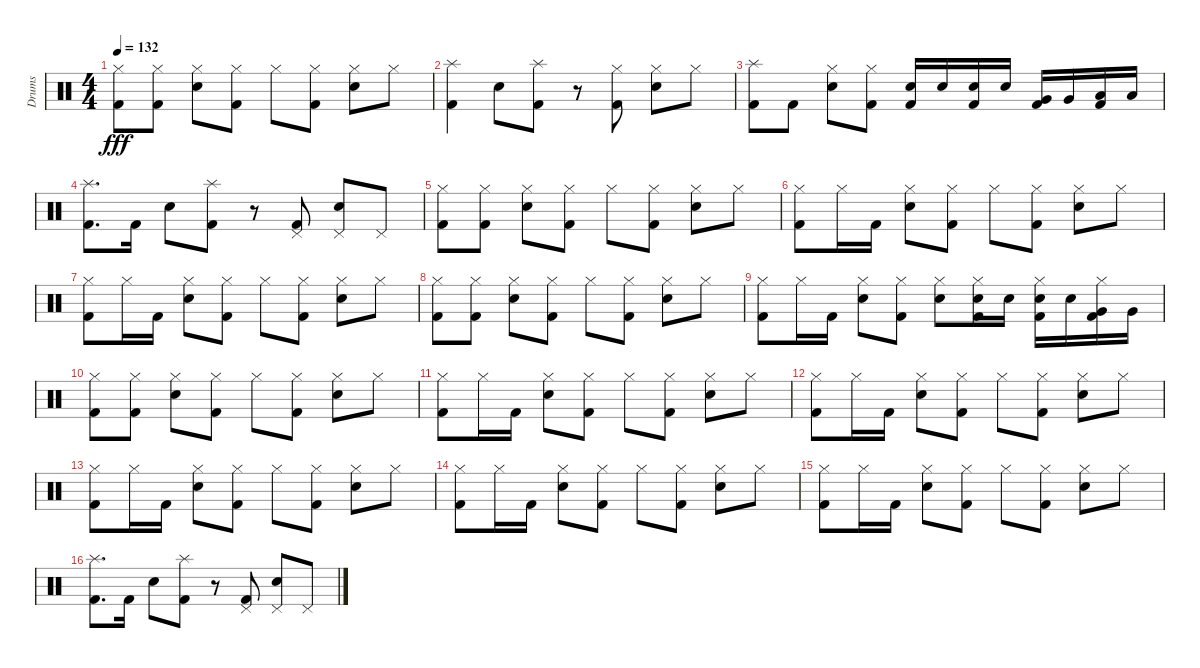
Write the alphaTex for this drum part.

\track ("Drums" "Drums") {instrument percussion}
\staff {score}
\articulation defaults
\ts (4 4)
\tempo 132
\clef neutral
\ks c
("Hi-Hat (closed)" "Kick (hit) 2").8{dy fff} ("Hi-Hat (closed)" "Kick (hit) 2").8 ("Hi-Hat (closed)" "Electric Snare (hit)").8 ("Hi-Hat (closed)" "Kick (hit) 2").8 "Hi-Hat (closed)".8 ("Hi-Hat (closed)" "Kick (hit) 2").8 ("Hi-Hat (closed)" "Electric Snare (hit)").8 "Hi-Hat (closed)".8 |
("Splash (hit)" "Kick (hit) 2").4 "Electric Snare (hit)".8 ("Splash (hit)" "Kick (hit) 2").8 r.8 ("Kick (hit) 2" "Hi-Hat (closed)").8 ("Electric Snare (hit)" "Hi-Hat (closed)").8 "Hi-Hat (closed)".8 |
("Splash (hit)" "Kick (hit) 2").8 "Kick (hit) 2".8 ("Hi-Hat (closed)" "Electric Snare (hit)").8 ("Hi-Hat (closed)" "Kick (hit) 2").8 ("Kick (hit) 2" "Electric Snare (hit)").16 "Electric Snare (hit)".16 ("Kick (hit) 2" "Electric Snare (hit)").16 "Electric Snare (hit)".16 ("Very Low Tom (hit)" "Kick (hit) 2").16 "Very Low Tom (hit)".16 ("Low Floor Tom (hit)" "Kick (hit) 2").16 "Low Floor Tom (hit)".16 |
("Kick (hit) 2" "Splash (hit)").8{d} "Kick (hit) 2".16 "Electric Snare (hit)".8 ("Splash (hit)" "Kick (hit) 2").8 r.8 ("Kick (hit) 2" "Pedal Hi-Hat (hit)").8 ("Electric Snare (hit)" "Pedal Hi-Hat (hit)").8 "Pedal Hi-Hat (hit)".8 |
("Hi-Hat (closed)" "Kick (hit) 2").8 ("Hi-Hat (closed)" "Kick (hit) 2").8 ("Hi-Hat (closed)" "Electric Snare (hit)").8 ("Hi-Hat (closed)" "Kick (hit) 2").8 "Hi-Hat (closed)".8 ("Hi-Hat (closed)" "Kick (hit) 2").8 ("Hi-Hat (closed)" "Electric Snare (hit)").8 "Hi-Hat (closed)".8 |
("Hi-Hat (closed)" "Kick (hit) 2").8 "Hi-Hat (closed)".16 "Kick (hit) 2".16 ("Hi-Hat (closed)" "Electric Snare (hit)").8 ("Hi-Hat (closed)" "Kick (hit) 2").8 "Hi-Hat (closed)".8 ("Hi-Hat (closed)" "Kick (hit) 2").8 ("Hi-Hat (closed)" "Electric Snare (hit)").8 "Hi-Hat (closed)".8 |
("Kick (hit) 2" "Hi-Hat (closed)").8 "Hi-Hat (closed)".16 "Kick (hit) 2".16 ("Electric Snare (hit)" "Hi-Hat (closed)").8 ("Kick (hit) 2" "Hi-Hat (closed)").8 "Hi-Hat (closed)".8 ("Kick (hit) 2" "Hi-Hat (closed)").8 ("Electric Snare (hit)" "Hi-Hat (closed)").8 "Hi-Hat (closed)".8 |
("Kick (hit) 2" "Hi-Hat (closed)").8 ("Kick (hit) 2" "Hi-Hat (closed)").8 ("Electric Snare (hit)" "Hi-Hat (closed)").8 ("Kick (hit) 2" "Hi-Hat (closed)").8 "Hi-Hat (closed)".8 ("Kick (hit) 2" "Hi-Hat (closed)").8 ("Electric Snare (hit)" "Hi-Hat (closed)").8 "Hi-Hat (closed)".8 |
("Kick (hit) 2" "Hi-Hat (closed)").8 "Hi-Hat (closed)".16 "Kick (hit) 2".16 ("Electric Snare (hit)" "Hi-Hat (closed)").8 ("Kick (hit) 2" "Hi-Hat (closed)").8 ("Electric Snare (hit)" "Hi-Hat (closed)").8 ("Kick (hit) 2" "Electric Snare (hit)" "Hi-Hat (closed)").16 "Electric Snare (hit)".16 ("Hi-Hat (closed)" "Kick (hit) 2" "Electric Snare (hit)").16 "Electric Snare (hit)".16 ("Hi-Hat (closed)" "Kick (hit) 2" "Very Low Tom (hit)").16 "Very Low Tom (hit)".16 |
("Hi-Hat (closed)" "Kick (hit) 2").8 ("Hi-Hat (closed)" "Kick (hit) 2").8 ("Hi-Hat (closed)" "Electric Snare (hit)").8 ("Hi-Hat (closed)" "Kick (hit) 2").8 "Hi-Hat (closed)".8 ("Hi-Hat (closed)" "Kick (hit) 2").8 ("Hi-Hat (closed)" "Electric Snare (hit)").8 "Hi-Hat (closed)".8 |
("Hi-Hat (closed)" "Kick (hit) 2").8 "Hi-Hat (closed)".16 "Kick (hit) 2".16 ("Hi-Hat (closed)" "Electric Snare (hit)").8 ("Hi-Hat (closed)" "Kick (hit) 2").8 "Hi-Hat (closed)".8 ("Kick (hit) 2" "Hi-Hat (closed)").8 ("Hi-Hat (closed)" "Electric Snare (hit)").8 "Hi-Hat (closed)".8 |
("Hi-Hat (closed)" "Kick (hit) 2").8 "Hi-Hat (closed)".16 "Kick (hit) 2".16 ("Hi-Hat (closed)" "Electric Snare (hit)").8 ("Hi-Hat (closed)" "Kick (hit) 2").8 "Hi-Hat (closed)".8 ("Kick (hit) 2" "Hi-Hat (closed)").8 ("Hi-Hat (closed)" "Electric Snare (hit)").8 "Hi-Hat (closed)".8 |
("Hi-Hat (closed)" "Kick (hit) 2").8 "Hi-Hat (closed)".16 "Kick (hit) 2".16 ("Hi-Hat (closed)" "Electric Snare (hit)").8 ("Hi-Hat (closed)" "Kick (hit) 2").8 "Hi-Hat (closed)".8 ("Kick (hit) 2" "Hi-Hat (closed)").8 ("Hi-Hat (closed)" "Electric Snare (hit)").8 "Hi-Hat (closed)".8 |
("Hi-Hat (closed)" "Kick (hit) 2").8 "Hi-Hat (closed)".16 "Kick (hit) 2".16 ("Hi-Hat (closed)" "Electric Snare (hit)").8 ("Hi-Hat (closed)" "Kick (hit) 2").8 "Hi-Hat (closed)".8 ("Kick (hit) 2" "Hi-Hat (closed)").8 ("Hi-Hat (closed)" "Electric Snare (hit)").8 "Hi-Hat (closed)".8 |
("Hi-Hat (closed)" "Kick (hit) 2").8 "Hi-Hat (closed)".16 "Kick (hit) 2".16 ("Hi-Hat (closed)" "Electric Snare (hit)").8 ("Hi-Hat (closed)" "Kick (hit) 2").8 "Hi-Hat (closed)".8 ("Kick (hit) 2" "Hi-Hat (closed)").8 ("Hi-Hat (closed)" "Electric Snare (hit)").8 "Hi-Hat (closed)".8 |
("Kick (hit) 2" "Splash (hit)").8{d} "Kick (hit) 2".16 "Electric Snare (hit)".8 ("Splash (hit)" "Kick (hit) 2").8 r.8 ("Kick (hit) 2" "Pedal Hi-Hat (hit)").8 ("Electric Snare (hit)" "Pedal Hi-Hat (hit)").8 "Pedal Hi-Hat (hit)".8
